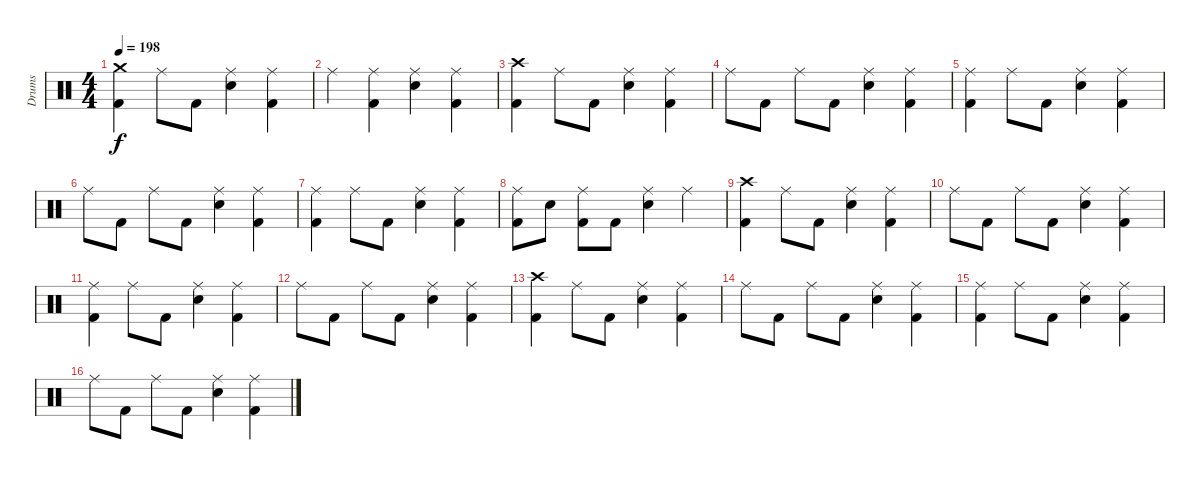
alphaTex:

\track ("Drums" "Drums") {instrument percussion}
\staff {score}
\articulation defaults
\ts (4 4)
\tempo 198
\clef neutral
\ks c
("Crash medium (hit)" "Kick (hit) 2").4{dy f} "Ride (middle)".8 "Kick (hit) 2".8 ("Ride (middle)" "Snare (hit) 2").4 ("Ride (middle)" "Kick (hit) 2").4 |
"Ride (middle)".4 ("Ride (middle)" "Kick (hit) 2").4 ("Ride (middle)" "Snare (hit) 2").4 ("Ride (middle)" "Kick (hit) 2").4 |
("Crash high (hit)" "Kick (hit) 2").4 "Ride (middle)".8 "Kick (hit) 2".8 ("Ride (middle)" "Snare (hit) 2").4 ("Ride (middle)" "Kick (hit) 2").4 |
"Ride (middle)".8 "Kick (hit) 2".8 "Ride (middle)".8 "Kick (hit) 2".8 ("Ride (middle)" "Snare (hit) 2").4 ("Ride (middle)" "Kick (hit) 2").4 |
("Ride (middle)" "Kick (hit) 2").4 "Ride (middle)".8 "Kick (hit) 2".8 ("Ride (middle)" "Snare (hit) 2").4 ("Ride (middle)" "Kick (hit) 2").4 |
"Ride (middle)".8 "Kick (hit) 2".8 "Ride (middle)".8 "Kick (hit) 2".8 ("Ride (middle)" "Snare (hit) 2").4 ("Ride (middle)" "Kick (hit) 2").4 |
("Ride (middle)" "Kick (hit) 2").4 "Ride (middle)".8 "Kick (hit) 2".8 ("Ride (middle)" "Snare (hit) 2").4 ("Ride (middle)" "Kick (hit) 2").4 |
("Ride (middle)" "Kick (hit) 2").8 "Snare (hit) 2".8 ("Ride (middle)" "Kick (hit) 2").8 "Kick (hit) 2".8 ("Ride (middle)" "Snare (hit) 2").4 "Ride (middle)".4 |
("Crash high (hit)" "Kick (hit) 2").4 "Ride (middle)".8 "Kick (hit) 2".8 ("Ride (middle)" "Snare (hit) 2").4 ("Ride (middle)" "Kick (hit) 2").4 |
"Ride (middle)".8 "Kick (hit) 2".8 "Ride (middle)".8 "Kick (hit) 2".8 ("Ride (middle)" "Snare (hit) 2").4 ("Ride (middle)" "Kick (hit) 2").4 |
("Ride (middle)" "Kick (hit) 2").4 "Ride (middle)".8 "Kick (hit) 2".8 ("Ride (middle)" "Snare (hit) 2").4 ("Ride (middle)" "Kick (hit) 2").4 |
"Ride (middle)".8 "Kick (hit) 2".8 "Ride (middle)".8 "Kick (hit) 2".8 ("Ride (middle)" "Snare (hit) 2").4 ("Ride (middle)" "Kick (hit) 2").4 |
("Crash high (hit)" "Kick (hit) 2").4 "Ride (middle)".8 "Kick (hit) 2".8 ("Ride (middle)" "Snare (hit) 2").4 ("Ride (middle)" "Kick (hit) 2").4 |
"Ride (middle)".8 "Kick (hit) 2".8 "Ride (middle)".8 "Kick (hit) 2".8 ("Ride (middle)" "Snare (hit) 2").4 ("Ride (middle)" "Kick (hit) 2").4 |
("Ride (middle)" "Kick (hit) 2").4 "Ride (middle)".8 "Kick (hit) 2".8 ("Ride (middle)" "Snare (hit) 2").4 ("Ride (middle)" "Kick (hit) 2").4 |
"Ride (middle)".8 "Kick (hit) 2".8 "Ride (middle)".8 "Kick (hit) 2".8 ("Ride (middle)" "Snare (hit) 2").4 ("Ride (middle)" "Kick (hit) 2").4
